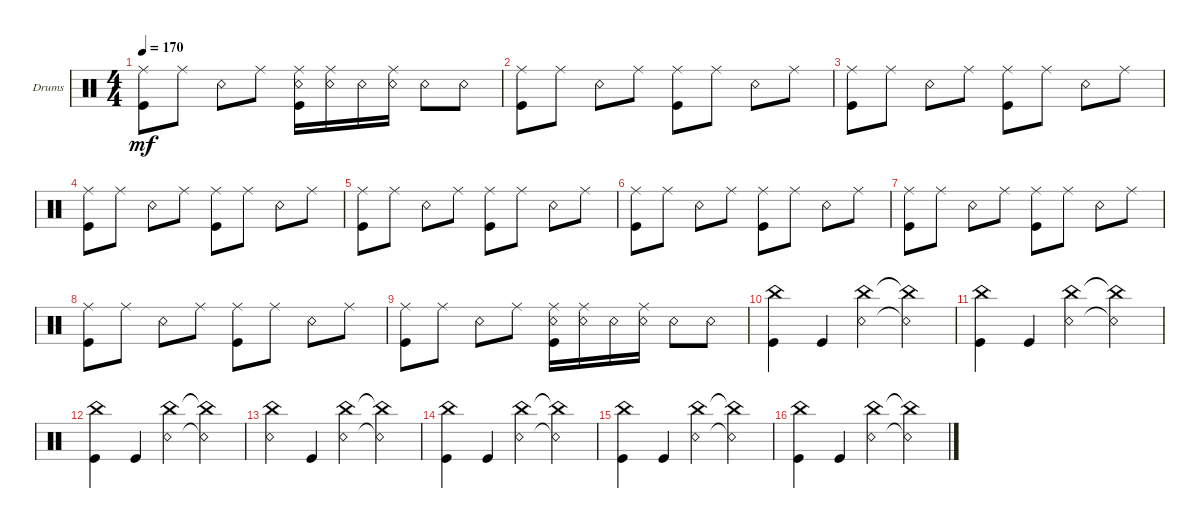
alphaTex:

\defaultSystemsLayout 4
\bracketExtendMode groupsimilarinstruments
\firstSystemTrackNameOrientation horizontal
\otherSystemsTrackNameOrientation horizontal
\track ("Drumkit" "Drums") {instrument percussion}
\staff {score}
\articulation defaults
\ts (4 4)
\tempo 170
\clef neutral
\ks c
("Kick (hit)" "Ride (middle)").8{dy mf} "Ride (middle)".8 "Snare (rim shot)".8 "Ride (middle)".8 ("Kick (hit)" "Ride (middle)" "Snare (rim shot)").16 ("Ride (middle)" "Snare (rim shot)").16 "Snare (rim shot)".16 ("Ride (middle)" "Snare (rim shot)").16 "Snare (rim shot)".8 "Snare (rim shot)".8 |
("Kick (hit)" "Ride (middle)").8 "Ride (middle)".8 "Snare (rim shot)".8 "Ride (middle)".8 ("Kick (hit)" "Ride (middle)").8 "Ride (middle)".8 "Snare (rim shot)".8 "Ride (middle)".8 |
("Kick (hit)" "Ride (middle)").8 "Ride (middle)".8 "Snare (rim shot)".8 "Ride (middle)".8 ("Kick (hit)" "Ride (middle)").8 "Ride (middle)".8 "Snare (rim shot)".8 "Ride (middle)".8 |
("Kick (hit)" "Ride (middle)").8 "Ride (middle)".8 "Snare (rim shot)".8 "Ride (middle)".8 ("Kick (hit)" "Ride (middle)").8 "Ride (middle)".8 "Snare (rim shot)".8 "Ride (middle)".8 |
("Kick (hit)" "Ride (middle)").8 "Ride (middle)".8 "Snare (rim shot)".8 "Ride (middle)".8 ("Kick (hit)" "Ride (middle)").8 "Ride (middle)".8 "Snare (rim shot)".8 "Ride (middle)".8 |
("Kick (hit)" "Ride (middle)").8 "Ride (middle)".8 "Snare (rim shot)".8 "Ride (middle)".8 ("Kick (hit)" "Ride (middle)").8 "Ride (middle)".8 "Snare (rim shot)".8 "Ride (middle)".8 |
("Kick (hit)" "Ride (middle)").8 "Ride (middle)".8 "Snare (rim shot)".8 "Ride (middle)".8 ("Kick (hit)" "Ride (middle)").8 "Ride (middle)".8 "Snare (rim shot)".8 "Ride (middle)".8 |
("Kick (hit)" "Ride (middle)").8 "Ride (middle)".8 "Snare (rim shot)".8 "Ride (middle)".8 ("Kick (hit)" "Ride (middle)").8 "Ride (middle)".8 "Snare (rim shot)".8 "Ride (middle)".8 |
("Kick (hit)" "Ride (middle)").8 "Ride (middle)".8 "Snare (rim shot)".8 "Ride (middle)".8 ("Kick (hit)" "Ride (middle)" "Snare (rim shot)").16 ("Ride (middle)" "Snare (rim shot)").16 "Snare (rim shot)".16 ("Ride (middle)" "Snare (rim shot)").16 "Snare (rim shot)".8 "Snare (rim shot)".8 |
("Kick (hit)" "China (hit)").4 "Kick (hit)".4 ("Snare (rim shot)" "China (hit)").4 ("Snare (rim shot)"{t} "China (hit)"{t}).4 |
("Kick (hit)" "China (hit)").4 "Kick (hit)".4 ("Snare (rim shot)" "China (hit)").4 ("Snare (rim shot)"{t} "China (hit)"{t}).4 |
("Kick (hit)" "China (hit)").4 "Kick (hit)".4 ("Snare (rim shot)" "China (hit)").4 ("Snare (rim shot)"{t} "China (hit)"{t}).4 |
("China (hit)" "Snare (rim shot)").4 "Kick (hit)".4 ("Snare (rim shot)" "China (hit)").4 ("Snare (rim shot)"{t} "China (hit)"{t}).4 |
("Kick (hit)" "China (hit)").4 "Kick (hit)".4 ("Snare (rim shot)" "China (hit)").4 ("Snare (rim shot)"{t} "China (hit)"{t}).4 |
("Kick (hit)" "China (hit)").4 "Kick (hit)".4 ("Snare (rim shot)" "China (hit)").4 ("Snare (rim shot)"{t} "China (hit)"{t}).4 |
("Kick (hit)" "China (hit)").4 "Kick (hit)".4 ("Snare (rim shot)" "China (hit)").4 ("Snare (rim shot)"{t} "China (hit)"{t}).4
